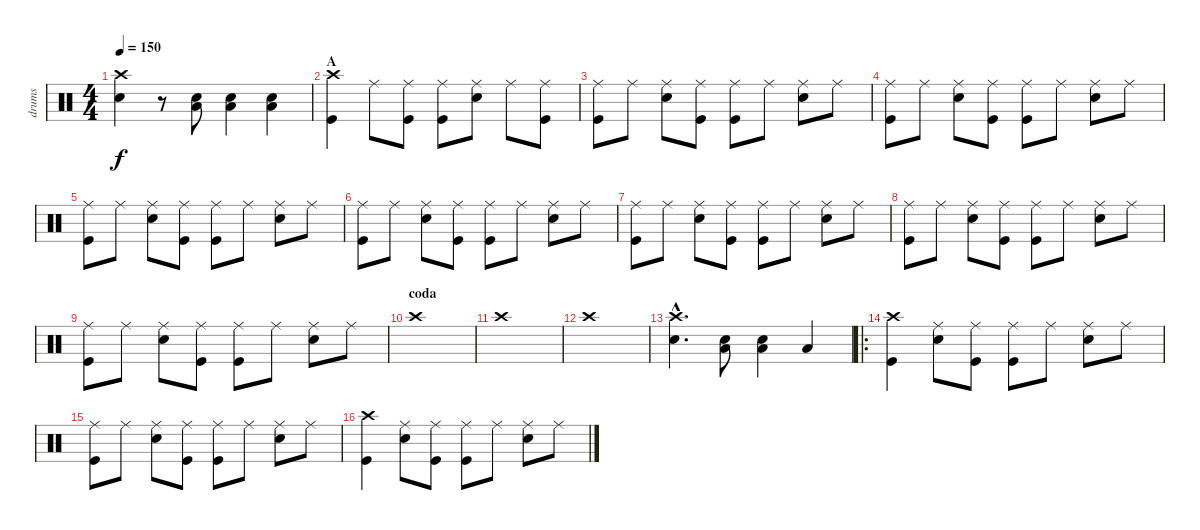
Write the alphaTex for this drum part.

\track ("drums" "drums") {instrument percussion}
\staff {score}
\articulation defaults
\ts (4 4)
\tempo 150
\clef neutral
\ks c
("Crash high (hit)" "Snare (hit) 2").4{dy f} r.8 ("Snare (hit) 2" "Low Tom (hit)").8 ("Snare (hit) 2" "Low Tom (hit)").4 ("Snare (hit) 2" "Low Tom (hit)").4 |
\section ("" "A")
("Crash high (hit)" "Kick (hit)").4 "Ride (middle)".8 ("Ride (middle)" "Kick (hit)").8 ("Ride (middle)" "Kick (hit)").8 ("Ride (middle)" "Snare (hit) 2").8 "Ride (middle)".8 ("Ride (middle)" "Kick (hit)").8 |
("Ride (middle)" "Kick (hit)").8 "Ride (middle)".8 ("Ride (middle)" "Snare (hit) 2").8 ("Ride (middle)" "Kick (hit)").8 ("Ride (middle)" "Kick (hit)").8 "Ride (middle)".8 ("Ride (middle)" "Snare (hit) 2").8 "Ride (middle)".8 |
("Ride (middle)" "Kick (hit)").8 "Ride (middle)".8 ("Ride (middle)" "Snare (hit) 2").8 ("Ride (middle)" "Kick (hit)").8 ("Ride (middle)" "Kick (hit)").8 "Ride (middle)".8 ("Ride (middle)" "Snare (hit) 2").8 "Ride (middle)".8 |
("Ride (middle)" "Kick (hit)").8 "Ride (middle)".8 ("Ride (middle)" "Snare (hit) 2").8 ("Ride (middle)" "Kick (hit)").8 ("Ride (middle)" "Kick (hit)").8 "Ride (middle)".8 ("Ride (middle)" "Snare (hit) 2").8 "Ride (middle)".8 |
("Ride (middle)" "Kick (hit)").8 "Ride (middle)".8 ("Ride (middle)" "Snare (hit) 2").8 ("Ride (middle)" "Kick (hit)").8 ("Ride (middle)" "Kick (hit)").8 "Ride (middle)".8 ("Ride (middle)" "Snare (hit) 2").8 "Ride (middle)".8 |
("Ride (middle)" "Kick (hit)").8 "Ride (middle)".8 ("Ride (middle)" "Snare (hit) 2").8 ("Ride (middle)" "Kick (hit)").8 ("Ride (middle)" "Kick (hit)").8 "Ride (middle)".8 ("Ride (middle)" "Snare (hit) 2").8 "Ride (middle)".8 |
("Ride (middle)" "Kick (hit)").8 "Ride (middle)".8 ("Ride (middle)" "Snare (hit) 2").8 ("Ride (middle)" "Kick (hit)").8 ("Ride (middle)" "Kick (hit)").8 "Ride (middle)".8 ("Ride (middle)" "Snare (hit) 2").8 "Ride (middle)".8 |
("Ride (middle)" "Kick (hit)").8 "Ride (middle)".8 ("Ride (middle)" "Snare (hit) 2").8 ("Ride (middle)" "Kick (hit)").8 ("Ride (middle)" "Kick (hit)").8 "Ride (middle)".8 ("Ride (middle)" "Snare (hit) 2").8 "Ride (middle)".8 |
\section ("" "coda")
"Crash high (hit)".1 |
"Crash high (hit)".1 |
"Crash high (hit)".1 |
("Crash high (hit)"{hac} "Snare (hit) 2"{hac}).4{d} ("Snare (hit) 2" "Low Tom (hit)").8 ("Snare (hit) 2" "Low Tom (hit)").4 "Low Tom (hit)".4 |
\ro
("Crash high (hit)" "Kick (hit)").4 ("Ride (middle)" "Snare (hit) 2").8 ("Ride (middle)" "Kick (hit)").8 ("Ride (middle)" "Kick (hit)").8 "Ride (middle)".8 ("Ride (middle)" "Snare (hit) 2").8 "Ride (middle)".8 |
("Ride (middle)" "Kick (hit)").8 "Ride (middle)".8 ("Ride (middle)" "Snare (hit) 2").8 ("Ride (middle)" "Kick (hit)").8 ("Ride (middle)" "Kick (hit)").8 "Ride (middle)".8 ("Ride (middle)" "Snare (hit) 2").8 "Ride (middle)".8 |
("Crash high (hit)" "Kick (hit)").4 ("Ride (middle)" "Snare (hit) 2").8 ("Ride (middle)" "Kick (hit)").8 ("Ride (middle)" "Kick (hit)").8 "Ride (middle)".8 ("Ride (middle)" "Snare (hit) 2").8 "Ride (middle)".8
